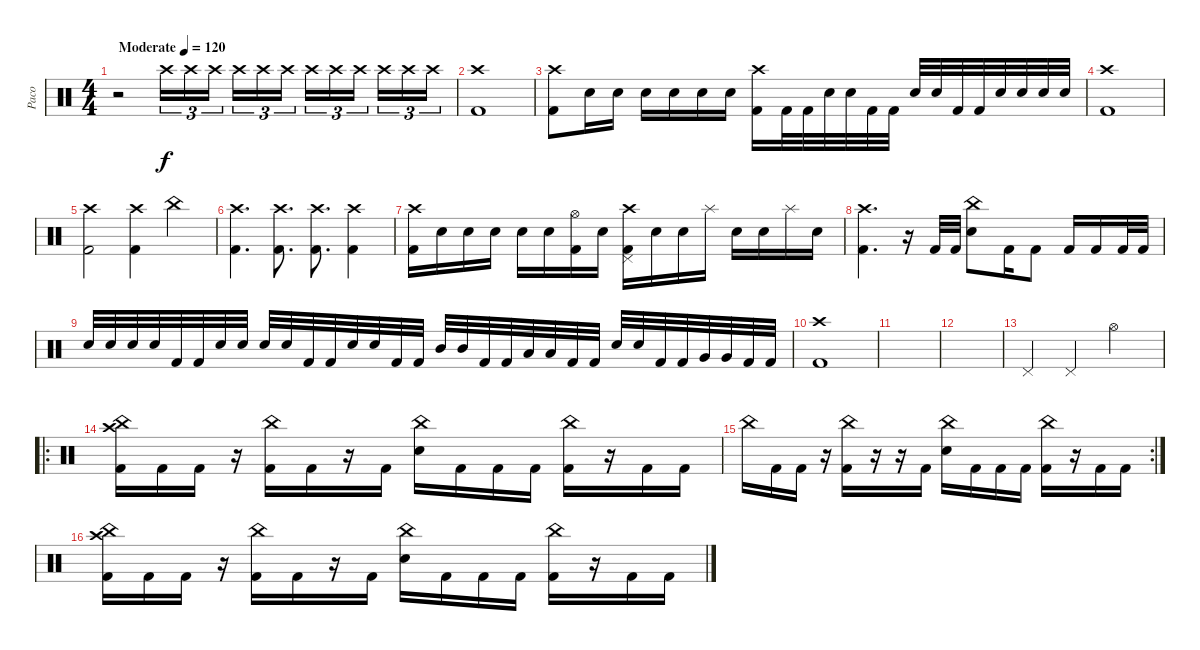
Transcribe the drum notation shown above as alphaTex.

\track ("Paco" "Paco") {instrument percussion}
\staff {score}
\articulation defaults
\ts (4 4)
\tempo (120 "Moderate")
\clef neutral
\ks c
r.2{dy f volume 3} "Crash high (hit)".16{tu (3 2) volume 13} "Crash high (hit)".16{tu (3 2)} "Crash high (hit)".16{tu (3 2) beam splitsecondary} "Crash high (hit)".16{tu (3 2)} "Crash high (hit)".16{tu (3 2)} "Crash high (hit)".16{tu (3 2)} "Crash high (hit)".16{tu (3 2)} "Crash high (hit)".16{tu (3 2)} "Crash high (hit)".16{tu (3 2) beam splitsecondary} "Crash high (hit)".16{tu (3 2)} "Crash high (hit)".16{tu (3 2)} "Crash high (hit)".16{tu (3 2)} |
("Crash high (hit)" "Kick (hit) 2").1 |
("Crash high (hit)" "Kick (hit) 2").8 "Electric Snare (hit)".16 "Electric Snare (hit)".16 "Electric Snare (hit)".16 "Electric Snare (hit)".16 "Electric Snare (hit)".16 "Electric Snare (hit)".16 ("Crash high (hit)" "Kick (hit) 2").16 "Kick (hit) 2".32 "Kick (hit) 2".32 "Electric Snare (hit)".32 "Electric Snare (hit)".32 "Kick (hit) 2".32 "Kick (hit) 2".32 "Electric Snare (hit)".32 "Electric Snare (hit)".32 "Kick (hit) 2".32 "Kick (hit) 2".32 "Electric Snare (hit)".32 "Electric Snare (hit)".32 "Electric Snare (hit)".32 "Electric Snare (hit)".32 |
("Crash high (hit)" "Kick (hit) 2").1 |
("Crash high (hit)" "Kick (hit) 2").2 ("Crash high (hit)" "Kick (hit) 2").4 "China (hit)".4 |
("Crash high (hit)" "Kick (hit) 2").4{d} ("Crash high (hit)" "Kick (hit) 2").8{d} ("Crash high (hit)" "Kick (hit) 2").8{d} ("Crash high (hit)" "Kick (hit) 2").4 |
("Crash high (hit)" "Kick (hit) 2").16 "Electric Snare (hit)".16 "Electric Snare (hit)".16 "Electric Snare (hit)".16 "Electric Snare (hit)".16 "Electric Snare (hit)".16 ("Hi-Hat (open)" "Kick (hit) 2").16 "Electric Snare (hit)".16 ("Crash high (hit)" "Kick (hit) 2" "Pedal Hi-Hat (hit)").16 "Electric Snare (hit)".16 "Electric Snare (hit)".16 "Splash (hit)".16 "Electric Snare (hit)".16 "Electric Snare (hit)".16 "Splash (hit)".16 "Electric Snare (hit)".16 |
("Crash high (hit)" "Kick (hit) 2").4{d} r.16 "Kick (hit) 2".32 "Kick (hit) 2".32 ("Electric Snare (hit)" "China (hit)").8 "Kick (hit) 2".16 "Kick (hit) 2".8 "Kick (hit) 2".16 "Kick (hit) 2".16 "Kick (hit) 2".32 "Kick (hit) 2".32 |
"Electric Snare (hit)".32 "Electric Snare (hit)".32 "Electric Snare (hit)".32 "Electric Snare (hit)".32 "Kick (hit) 2".32 "Kick (hit) 2".32 "Electric Snare (hit)".32 "Electric Snare (hit)".32 "Electric Snare (hit)".32 "Electric Snare (hit)".32 "Kick (hit) 2".32 "Kick (hit) 2".32 "Electric Snare (hit)".32 "Electric Snare (hit)".32 "Kick (hit) 2".32 "Kick (hit) 2".32 "Mid Tom (hit)".32 "Mid Tom (hit)".32 "Kick (hit) 2".32 "Kick (hit) 2".32 "Low Tom (hit)".32 "Low Tom (hit)".32 "Kick (hit) 2".32 "Kick (hit) 2".32 "Electric Snare (hit)".32 "Electric Snare (hit)".32 "Kick (hit) 2".32 "Kick (hit) 2".32 "Very Low Tom (hit)".32 "Very Low Tom (hit)".32 "Kick (hit) 2".32 "Kick (hit) 2".32 |
("Crash high (hit)" "Kick (hit) 2").1 |
|
|
"Pedal Hi-Hat (hit)".4 "Pedal Hi-Hat (hit)".4 "Hi-Hat (open)".2 |
\ro
("China (hit)" "Crash high (hit)" "Kick (hit) 2").16 "Kick (hit) 2".16 "Kick (hit) 2".16 r.16 ("China (hit)" "Kick (hit) 2").16 "Kick (hit) 2".16 r.16 "Kick (hit) 2".16 ("China (hit)" "Electric Snare (hit)").16 "Kick (hit) 2".16 "Kick (hit) 2".16 "Kick (hit) 2".16 ("China (hit)" "Kick (hit) 2").16 r.16 "Kick (hit) 2".16 "Kick (hit) 2".16 |
\rc 2 "China (hit)".16 "Kick (hit) 2".16 "Kick (hit) 2".16
r.16 ("China (hit)" "Kick (hit) 2").16 r.16 r.16 "Kick (hit) 2".16 ("China (hit)" "Electric Snare (hit)").16 "Kick (hit) 2".16 "Kick (hit) 2".16 "Kick (hit) 2".16 ("China (hit)" "Kick (hit) 2").16 r.16 "Kick (hit) 2".16 "Kick (hit) 2".16 |
("China (hit)" "Crash high (hit)" "Kick (hit) 2").16 "Kick (hit) 2".16 "Kick (hit) 2".16 r.16 ("China (hit)" "Kick (hit) 2").16 "Kick (hit) 2".16 r.16 "Kick (hit) 2".16 ("China (hit)" "Electric Snare (hit)").16 "Kick (hit) 2".16 "Kick (hit) 2".16 "Kick (hit) 2".16 ("China (hit)" "Kick (hit) 2").16 r.16 "Kick (hit) 2".16 "Kick (hit) 2".16
